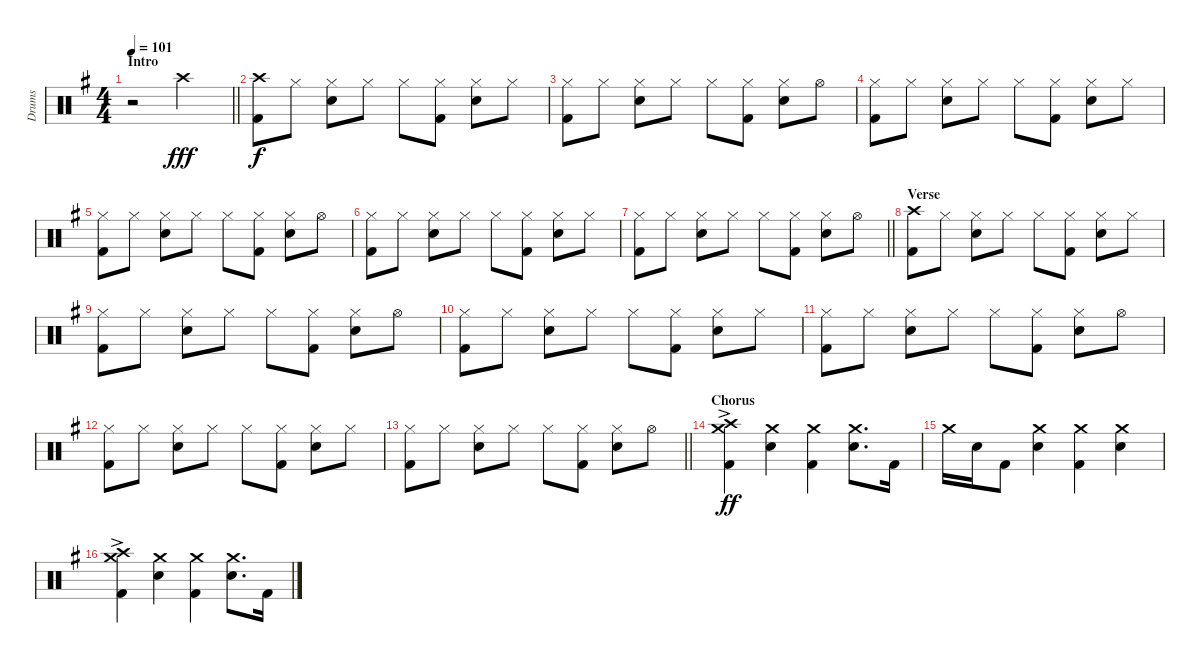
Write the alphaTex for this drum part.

\track ("Drums" "Drums") {instrument percussion}
\staff {score}
\articulation defaults
\ts (4 4)
\section ("" "Intro")
\tempo 101
\clef neutral
\barLineRight lightlight
\ks eminor
r.2{dy fff volume 0} "Crash high (hit)".2{volume 13} |
\section ("" "")
("Crash high (hit)" "Kick (hit) 2").8{dy f} "Hi-Hat (closed)".8 ("Hi-Hat (closed)" "Snare (hit) 2").8 "Hi-Hat (closed)".8 "Hi-Hat (closed)".8 ("Hi-Hat (closed)" "Kick (hit) 2").8 ("Hi-Hat (closed)" "Snare (hit) 2").8 "Hi-Hat (closed)".8 |
("Hi-Hat (closed)" "Kick (hit) 2").8 "Hi-Hat (closed)".8 ("Hi-Hat (closed)" "Snare (hit) 2").8 "Hi-Hat (closed)".8 "Hi-Hat (closed)".8 ("Hi-Hat (closed)" "Kick (hit) 2").8 ("Hi-Hat (closed)" "Snare (hit) 2").8 "Hi-Hat (open)".8 |
("Hi-Hat (closed)" "Kick (hit) 2").8 "Hi-Hat (closed)".8 ("Hi-Hat (closed)" "Snare (hit) 2").8 "Hi-Hat (closed)".8 "Hi-Hat (closed)".8 ("Hi-Hat (closed)" "Kick (hit) 2").8 ("Hi-Hat (closed)" "Snare (hit) 2").8 "Hi-Hat (closed)".8 |
("Hi-Hat (closed)" "Kick (hit) 2").8 "Hi-Hat (closed)".8 ("Hi-Hat (closed)" "Snare (hit) 2").8 "Hi-Hat (closed)".8 "Hi-Hat (closed)".8 ("Hi-Hat (closed)" "Kick (hit) 2").8 ("Hi-Hat (closed)" "Snare (hit) 2").8 "Hi-Hat (open)".8 |
("Hi-Hat (closed)" "Kick (hit) 2").8 "Hi-Hat (closed)".8 ("Hi-Hat (closed)" "Snare (hit) 2").8 "Hi-Hat (closed)".8 "Hi-Hat (closed)".8 ("Hi-Hat (closed)" "Kick (hit) 2").8 ("Hi-Hat (closed)" "Snare (hit) 2").8 "Hi-Hat (closed)".8 |
\barLineRight lightlight
("Hi-Hat (closed)" "Kick (hit) 2").8 "Hi-Hat (closed)".8 ("Hi-Hat (closed)" "Snare (hit) 2").8 "Hi-Hat (closed)".8 "Hi-Hat (closed)".8 ("Hi-Hat (closed)" "Kick (hit) 2").8 ("Hi-Hat (closed)" "Snare (hit) 2").8 "Hi-Hat (open)".8 |
\section ("" "Verse")
("Crash high (hit)" "Kick (hit) 2").8 "Hi-Hat (closed)".8 ("Hi-Hat (closed)" "Snare (hit) 2").8 "Hi-Hat (closed)".8 "Hi-Hat (closed)".8 ("Hi-Hat (closed)" "Kick (hit) 2").8 ("Hi-Hat (closed)" "Snare (hit) 2").8 "Hi-Hat (closed)".8 |
("Hi-Hat (closed)" "Kick (hit) 2").8 "Hi-Hat (closed)".8 ("Hi-Hat (closed)" "Snare (hit) 2").8 "Hi-Hat (closed)".8 "Hi-Hat (closed)".8 ("Hi-Hat (closed)" "Kick (hit) 2").8 ("Hi-Hat (closed)" "Snare (hit) 2").8 "Hi-Hat (open)".8 |
("Hi-Hat (closed)" "Kick (hit) 2").8 "Hi-Hat (closed)".8 ("Hi-Hat (closed)" "Snare (hit) 2").8 "Hi-Hat (closed)".8 "Hi-Hat (closed)".8 ("Hi-Hat (closed)" "Kick (hit) 2").8 ("Hi-Hat (closed)" "Snare (hit) 2").8 "Hi-Hat (closed)".8 |
("Hi-Hat (closed)" "Kick (hit) 2").8 "Hi-Hat (closed)".8 ("Hi-Hat (closed)" "Snare (hit) 2").8 "Hi-Hat (closed)".8 "Hi-Hat (closed)".8 ("Hi-Hat (closed)" "Kick (hit) 2").8 ("Hi-Hat (closed)" "Snare (hit) 2").8 "Hi-Hat (open)".8 |
("Hi-Hat (closed)" "Kick (hit) 2").8 "Hi-Hat (closed)".8 ("Hi-Hat (closed)" "Snare (hit) 2").8 "Hi-Hat (closed)".8 "Hi-Hat (closed)".8 ("Hi-Hat (closed)" "Kick (hit) 2").8 ("Hi-Hat (closed)" "Snare (hit) 2").8 "Hi-Hat (closed)".8 |
\barLineRight lightlight
("Hi-Hat (closed)" "Kick (hit) 2").8 "Hi-Hat (closed)".8 ("Hi-Hat (closed)" "Snare (hit) 2").8 "Hi-Hat (closed)".8 "Hi-Hat (closed)".8 ("Hi-Hat (closed)" "Kick (hit) 2").8 ("Hi-Hat (closed)" "Snare (hit) 2").8 "Hi-Hat (open)".8 |
\section ("" "Chorus")
("Crash medium (hit)"{ac} "Crash high (hit)"{ac} "Kick (hit) 2").4{dy ff} ("Crash medium (hit)" "Snare (hit) 2").4 ("Crash medium (hit)" "Kick (hit) 2").4 ("Crash medium (hit)" "Snare (hit) 2").8{d} "Kick (hit) 2".16 |
"Crash medium (hit)".16 "Snare (hit) 2".16 "Kick (hit) 2".8 ("Crash medium (hit)" "Snare (hit) 2").4 ("Crash medium (hit)" "Kick (hit) 2").4 ("Crash medium (hit)" "Snare (hit) 2").4 |
("Crash medium (hit)"{ac} "Crash high (hit)"{ac} "Kick (hit) 2").4 ("Crash medium (hit)" "Snare (hit) 2").4 ("Crash medium (hit)" "Kick (hit) 2").4 ("Crash medium (hit)" "Snare (hit) 2").8{d} "Kick (hit) 2".16
